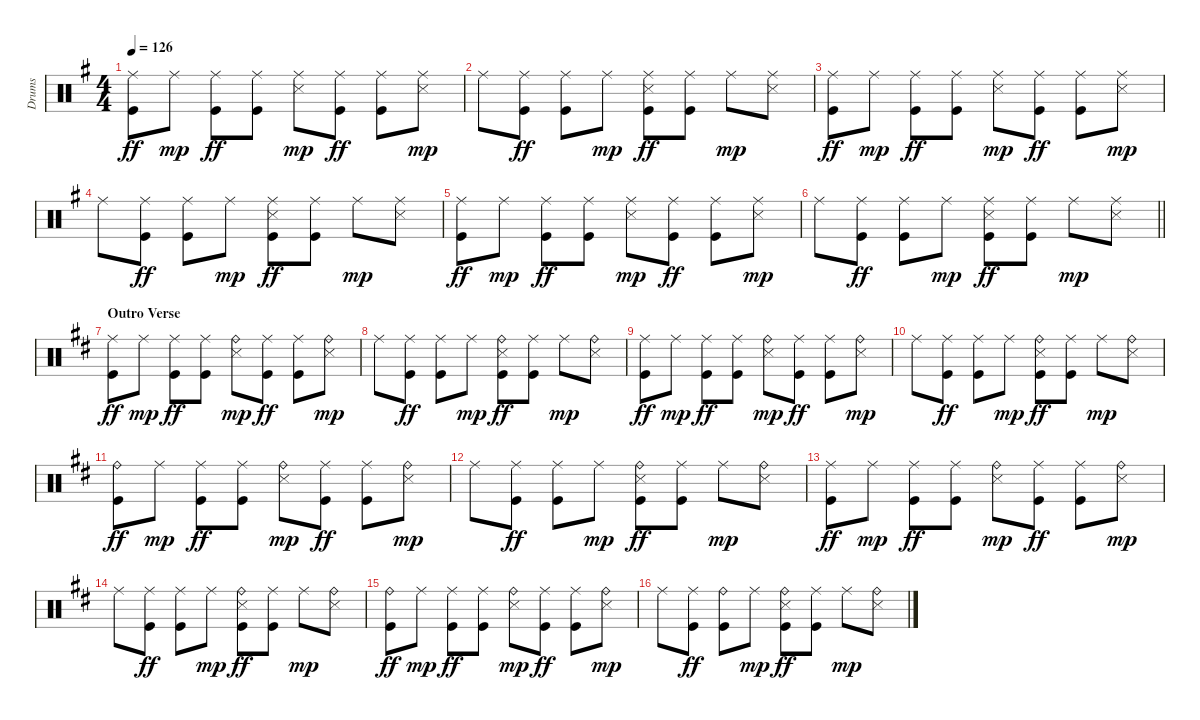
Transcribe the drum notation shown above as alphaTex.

\track ("Drums" "Drums") {instrument percussion}
\staff {score}
\articulation defaults
\ts (4 4)
\tempo 126
\clef neutral
\ks eminor
("Ride (middle)" "Kick (hit)").8{dy ff} "Ride (middle)".8{dy mp} ("Ride (middle)" "Kick (hit)").8{dy ff} ("Ride (middle)" "Kick (hit)").8 ("Ride (middle)" "Snare (side stick) 3").8{dy mp} ("Ride (middle)" "Kick (hit)").8{dy ff} ("Ride (middle)" "Kick (hit)").8 ("Ride (middle)" "Snare (side stick) 3").8{dy mp} |
"Ride (middle)".8 ("Ride (middle)" "Kick (hit)").8{dy ff} ("Ride (middle)" "Kick (hit)").8 "Ride (middle)".8{dy mp} ("Ride (middle)" "Snare (side stick) 3" "Kick (hit)").8{dy ff} ("Ride (middle)" "Kick (hit)").8 "Ride (middle)".8{dy mp} ("Ride (middle)" "Snare (side stick) 3").8 |
("Ride (middle)" "Kick (hit)").8{dy ff} "Ride (middle)".8{dy mp} ("Ride (middle)" "Kick (hit)").8{dy ff} ("Ride (middle)" "Kick (hit)").8 ("Ride (middle)" "Snare (side stick) 3").8{dy mp} ("Ride (middle)" "Kick (hit)").8{dy ff} ("Ride (middle)" "Kick (hit)").8 ("Ride (middle)" "Snare (side stick) 3").8{dy mp} |
"Ride (middle)".8 ("Ride (middle)" "Kick (hit)").8{dy ff} ("Ride (middle)" "Kick (hit)").8 "Ride (middle)".8{dy mp} ("Ride (middle)" "Snare (side stick) 3" "Kick (hit)").8{dy ff} ("Ride (middle)" "Kick (hit)").8 "Ride (middle)".8{dy mp} ("Ride (middle)" "Snare (side stick) 3").8 |
("Ride (middle)" "Kick (hit)").8{dy ff} "Ride (middle)".8{dy mp} ("Ride (middle)" "Kick (hit)").8{dy ff} ("Ride (middle)" "Kick (hit)").8 ("Ride (middle)" "Snare (side stick) 3").8{dy mp} ("Ride (middle)" "Kick (hit)").8{dy ff} ("Ride (middle)" "Kick (hit)").8 ("Ride (middle)" "Snare (side stick) 3").8{dy mp} |
\barLineRight lightlight "Ride (middle)".8
("Ride (middle)" "Kick (hit)").8{dy ff} ("Ride (middle)" "Kick (hit)").8 "Ride (middle)".8{dy mp} ("Ride (middle)" "Snare (side stick) 3" "Kick (hit)").8{dy ff} ("Ride (middle)" "Kick (hit)").8 "Ride (middle)".8{dy mp} ("Ride (middle)" "Snare (side stick) 3").8 |
\section ("" "Outro Verse")
\ks bminor
("Ride (middle)" "Kick (hit)").8{dy ff} "Ride (middle)".8{dy mp} ("Ride (middle)" "Kick (hit)").8{dy ff} ("Ride (middle)" "Kick (hit)").8 ("Ride (bell)" "Snare (side stick) 3").8{dy mp} ("Ride (middle)" "Kick (hit)").8{dy ff} ("Ride (middle)" "Kick (hit)").8 ("Ride (bell)" "Snare (side stick) 3").8{dy mp} |
"Ride (middle)".8 ("Ride (middle)" "Kick (hit)").8{dy ff} ("Ride (middle)" "Kick (hit)").8 "Ride (middle)".8{dy mp} ("Ride (bell)" "Snare (side stick) 3" "Kick (hit)").8{dy ff} ("Ride (middle)" "Kick (hit)").8 "Ride (middle)".8{dy mp} ("Ride (bell)" "Snare (side stick) 3").8 |
("Ride (middle)" "Kick (hit)").8{dy ff} "Ride (middle)".8{dy mp} ("Ride (middle)" "Kick (hit)").8{dy ff} ("Ride (middle)" "Kick (hit)").8 ("Ride (bell)" "Snare (side stick) 3").8{dy mp} ("Ride (middle)" "Kick (hit)").8{dy ff} ("Ride (middle)" "Kick (hit)").8 ("Ride (bell)" "Snare (side stick) 3").8{dy mp} |
"Ride (middle)".8 ("Ride (middle)" "Kick (hit)").8{dy ff} ("Ride (middle)" "Kick (hit)").8 "Ride (middle)".8{dy mp} ("Ride (bell)" "Snare (side stick) 3" "Kick (hit)").8{dy ff} ("Ride (middle)" "Kick (hit)").8 "Ride (middle)".8{dy mp} ("Ride (bell)" "Snare (side stick) 3").8 |
("Ride (bell)" "Kick (hit)").8{dy ff} "Ride (middle)".8{dy mp} ("Ride (middle)" "Kick (hit)").8{dy ff} ("Ride (middle)" "Kick (hit)").8 ("Ride (bell)" "Snare (side stick) 3").8{dy mp} ("Ride (middle)" "Kick (hit)").8{dy ff} ("Ride (middle)" "Kick (hit)").8 ("Ride (bell)" "Snare (side stick) 3").8{dy mp} |
"Ride (middle)".8 ("Ride (middle)" "Kick (hit)").8{dy ff} ("Ride (middle)" "Kick (hit)").8 "Ride (middle)".8{dy mp} ("Ride (bell)" "Snare (side stick) 3" "Kick (hit)").8{dy ff} ("Ride (middle)" "Kick (hit)").8 "Ride (middle)".8{dy mp} ("Ride (bell)" "Snare (side stick) 3").8 |
("Ride (middle)" "Kick (hit)").8{dy ff} "Ride (middle)".8{dy mp} ("Ride (middle)" "Kick (hit)").8{dy ff} ("Ride (middle)" "Kick (hit)").8 ("Ride (bell)" "Snare (side stick) 3").8{dy mp} ("Ride (middle)" "Kick (hit)").8{dy ff} ("Ride (middle)" "Kick (hit)").8 ("Ride (bell)" "Snare (side stick) 3").8{dy mp} |
"Ride (middle)".8 ("Ride (middle)" "Kick (hit)").8{dy ff} ("Ride (middle)" "Kick (hit)").8 "Ride (middle)".8{dy mp} ("Ride (bell)" "Snare (side stick) 3" "Kick (hit)").8{dy ff} ("Ride (middle)" "Kick (hit)").8 "Ride (middle)".8{dy mp} ("Ride (bell)" "Snare (side stick) 3").8 |
("Ride (bell)" "Kick (hit)").8{dy ff} "Ride (middle)".8{dy mp} ("Ride (middle)" "Kick (hit)").8{dy ff} ("Ride (middle)" "Kick (hit)").8 ("Ride (bell)" "Snare (side stick) 3").8{dy mp} ("Ride (middle)" "Kick (hit)").8{dy ff} ("Ride (middle)" "Kick (hit)").8 ("Ride (bell)" "Snare (side stick) 3").8{dy mp} |
"Ride (middle)".8 ("Ride (middle)" "Kick (hit)").8{dy ff} ("Ride (bell)" "Kick (hit)").8 "Ride (middle)".8{dy mp} ("Ride (bell)" "Snare (side stick) 3" "Kick (hit)").8{dy ff} ("Ride (middle)" "Kick (hit)").8 "Ride (middle)".8{dy mp} ("Ride (bell)" "Snare (side stick) 3").8
